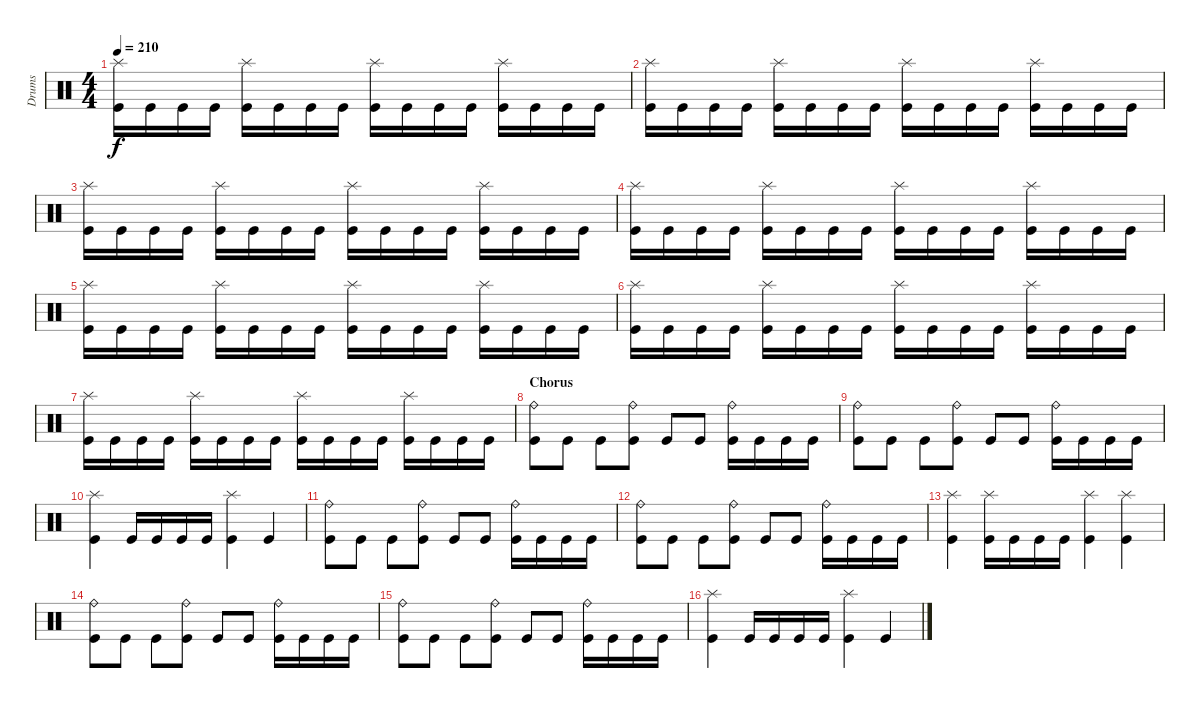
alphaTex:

\track ("Drums" "Drums") {instrument percussion}
\staff {score}
\articulation defaults
\ts (4 4)
\tempo 210
\clef neutral
\ks c
("Splash (hit)" "Kick (hit)").16{dy f} "Kick (hit)".16 "Kick (hit)".16 "Kick (hit)".16 ("Splash (hit)" "Kick (hit)").16 "Kick (hit)".16 "Kick (hit)".16 "Kick (hit)".16 ("Splash (hit)" "Kick (hit)").16 "Kick (hit)".16 "Kick (hit)".16 "Kick (hit)".16 ("Splash (hit)" "Kick (hit)").16 "Kick (hit)".16 "Kick (hit)".16 "Kick (hit)".16 |
("Splash (hit)" "Kick (hit)").16 "Kick (hit)".16 "Kick (hit)".16 "Kick (hit)".16 ("Splash (hit)" "Kick (hit)").16 "Kick (hit)".16 "Kick (hit)".16 "Kick (hit)".16 ("Splash (hit)" "Kick (hit)").16 "Kick (hit)".16 "Kick (hit)".16 "Kick (hit)".16 ("Splash (hit)" "Kick (hit)").16 "Kick (hit)".16 "Kick (hit)".16 "Kick (hit)".16 |
("Splash (hit)" "Kick (hit)").16 "Kick (hit)".16 "Kick (hit)".16 "Kick (hit)".16 ("Splash (hit)" "Kick (hit)").16 "Kick (hit)".16 "Kick (hit)".16 "Kick (hit)".16 ("Splash (hit)" "Kick (hit)").16 "Kick (hit)".16 "Kick (hit)".16 "Kick (hit)".16 ("Splash (hit)" "Kick (hit)").16 "Kick (hit)".16 "Kick (hit)".16 "Kick (hit)".16 |
("Splash (hit)" "Kick (hit)").16 "Kick (hit)".16 "Kick (hit)".16 "Kick (hit)".16 ("Splash (hit)" "Kick (hit)").16 "Kick (hit)".16 "Kick (hit)".16 "Kick (hit)".16 ("Splash (hit)" "Kick (hit)").16 "Kick (hit)".16 "Kick (hit)".16 "Kick (hit)".16 ("Splash (hit)" "Kick (hit)").16 "Kick (hit)".16 "Kick (hit)".16 "Kick (hit)".16 |
("Splash (hit)" "Kick (hit)").16 "Kick (hit)".16 "Kick (hit)".16 "Kick (hit)".16 ("Splash (hit)" "Kick (hit)").16 "Kick (hit)".16 "Kick (hit)".16 "Kick (hit)".16 ("Splash (hit)" "Kick (hit)").16 "Kick (hit)".16 "Kick (hit)".16 "Kick (hit)".16 ("Splash (hit)" "Kick (hit)").16 "Kick (hit)".16 "Kick (hit)".16 "Kick (hit)".16 |
("Splash (hit)" "Kick (hit)").16 "Kick (hit)".16 "Kick (hit)".16 "Kick (hit)".16 ("Splash (hit)" "Kick (hit)").16 "Kick (hit)".16 "Kick (hit)".16 "Kick (hit)".16 ("Splash (hit)" "Kick (hit)").16 "Kick (hit)".16 "Kick (hit)".16 "Kick (hit)".16 ("Splash (hit)" "Kick (hit)").16 "Kick (hit)".16 "Kick (hit)".16 "Kick (hit)".16 |
("Splash (hit)" "Kick (hit)").16 "Kick (hit)".16 "Kick (hit)".16 "Kick (hit)".16 ("Splash (hit)" "Kick (hit)").16 "Kick (hit)".16 "Kick (hit)".16 "Kick (hit)".16 ("Splash (hit)" "Kick (hit)").16 "Kick (hit)".16 "Kick (hit)".16 "Kick (hit)".16 ("Splash (hit)" "Kick (hit)").16 "Kick (hit)".16 "Kick (hit)".16 "Kick (hit)".16 |
\section ("" "Chorus")
("Ride (bell)" "Kick (hit)").8 "Kick (hit)".8 "Kick (hit)".8 ("Ride (bell)" "Kick (hit)").8 "Kick (hit)".8 "Kick (hit)".8 ("Ride (bell)" "Kick (hit)").16 "Kick (hit)".16 "Kick (hit)".16 "Kick (hit)".16 |
("Ride (bell)" "Kick (hit)").8 "Kick (hit)".8 "Kick (hit)".8 ("Ride (bell)" "Kick (hit)").8 "Kick (hit)".8 "Kick (hit)".8 ("Ride (bell)" "Kick (hit)").16 "Kick (hit)".16 "Kick (hit)".16 "Kick (hit)".16 |
("Splash (hit)" "Kick (hit)").4 "Kick (hit)".16 "Kick (hit)".16 "Kick (hit)".16 "Kick (hit)".16 ("Splash (hit)" "Kick (hit)").4 "Kick (hit)".4 |
("Ride (bell)" "Kick (hit)").8 "Kick (hit)".8 "Kick (hit)".8 ("Ride (bell)" "Kick (hit)").8 "Kick (hit)".8 "Kick (hit)".8 ("Ride (bell)" "Kick (hit)").16 "Kick (hit)".16 "Kick (hit)".16 "Kick (hit)".16 |
("Ride (bell)" "Kick (hit)").8 "Kick (hit)".8 "Kick (hit)".8 ("Ride (bell)" "Kick (hit)").8 "Kick (hit)".8 "Kick (hit)".8 ("Ride (bell)" "Kick (hit)").16 "Kick (hit)".16 "Kick (hit)".16 "Kick (hit)".16 |
("Splash (hit)" "Kick (hit)").4 ("Splash (hit)" "Kick (hit)").16 "Kick (hit)".16 "Kick (hit)".16 "Kick (hit)".16 ("Splash (hit)" "Kick (hit)").4 ("Splash (hit)" "Kick (hit)").4 |
("Ride (bell)" "Kick (hit)").8 "Kick (hit)".8 "Kick (hit)".8 ("Ride (bell)" "Kick (hit)").8 "Kick (hit)".8 "Kick (hit)".8 ("Ride (bell)" "Kick (hit)").16 "Kick (hit)".16 "Kick (hit)".16 "Kick (hit)".16 |
("Ride (bell)" "Kick (hit)").8 "Kick (hit)".8 "Kick (hit)".8 ("Ride (bell)" "Kick (hit)").8 "Kick (hit)".8 "Kick (hit)".8 ("Ride (bell)" "Kick (hit)").16 "Kick (hit)".16 "Kick (hit)".16 "Kick (hit)".16 |
("Splash (hit)" "Kick (hit)").4 "Kick (hit)".16 "Kick (hit)".16 "Kick (hit)".16 "Kick (hit)".16 ("Splash (hit)" "Kick (hit)").4 "Kick (hit)".4
